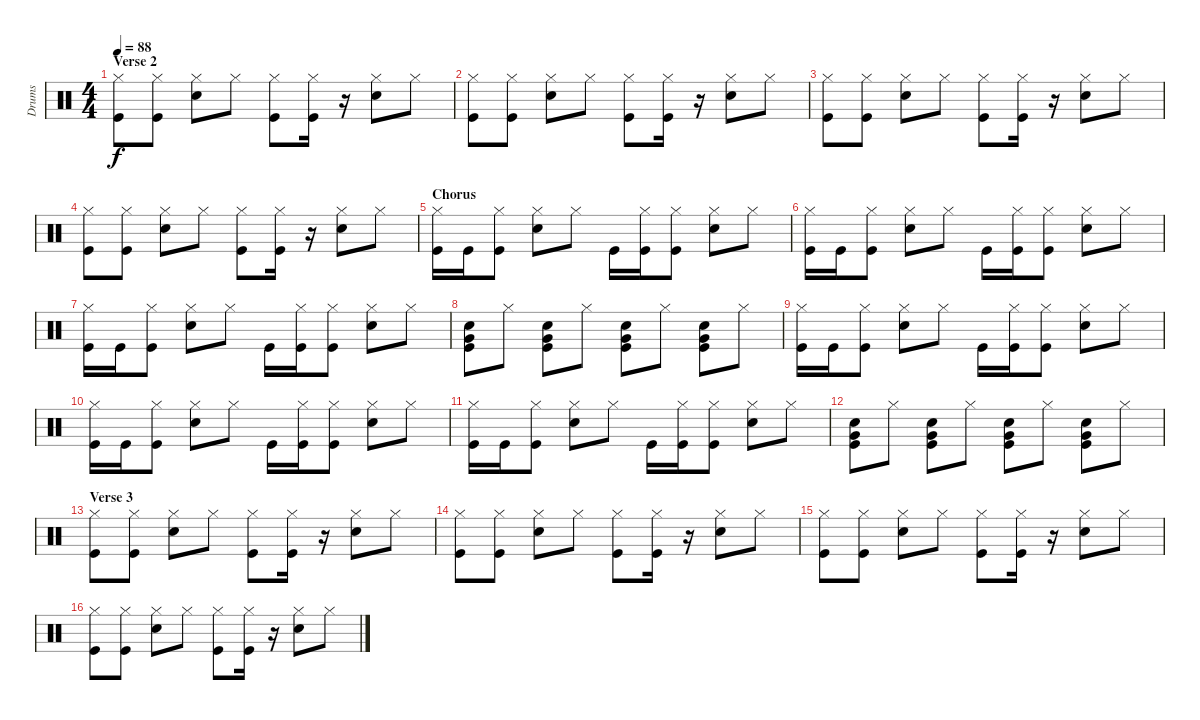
\track ("Drums" "Drums") {instrument percussion}
\staff {score}
\articulation defaults
\ts (4 4)
\section ("" "Verse 2")
\tempo 88
\clef neutral
\ks c
("Hi-Hat (closed)" "Kick (hit)").8{dy f} ("Hi-Hat (closed)" "Kick (hit)").8 ("Hi-Hat (closed)" "Snare (hit) 2").8 "Hi-Hat (closed)".8 ("Hi-Hat (closed)" "Kick (hit)").8 ("Hi-Hat (closed)" "Kick (hit)").16 r.16 ("Hi-Hat (closed)" "Snare (hit) 2").8 "Hi-Hat (closed)".8 |
("Hi-Hat (closed)" "Kick (hit)").8 ("Hi-Hat (closed)" "Kick (hit)").8 ("Hi-Hat (closed)" "Snare (hit) 2").8 "Hi-Hat (closed)".8 ("Hi-Hat (closed)" "Kick (hit)").8 ("Hi-Hat (closed)" "Kick (hit)").16 r.16 ("Hi-Hat (closed)" "Snare (hit) 2").8 "Hi-Hat (closed)".8 |
("Hi-Hat (closed)" "Kick (hit)").8 ("Hi-Hat (closed)" "Kick (hit)").8 ("Hi-Hat (closed)" "Snare (hit) 2").8 "Hi-Hat (closed)".8 ("Hi-Hat (closed)" "Kick (hit)").8 ("Hi-Hat (closed)" "Kick (hit)").16 r.16 ("Hi-Hat (closed)" "Snare (hit) 2").8 "Hi-Hat (closed)".8 |
("Hi-Hat (closed)" "Kick (hit)").8 ("Hi-Hat (closed)" "Kick (hit)").8 ("Hi-Hat (closed)" "Snare (hit) 2").8 "Hi-Hat (closed)".8 ("Hi-Hat (closed)" "Kick (hit)").8 ("Hi-Hat (closed)" "Kick (hit)").16 r.16 ("Hi-Hat (closed)" "Snare (hit) 2").8 "Hi-Hat (closed)".8 |
\section ("" "Chorus")
("Hi-Hat (closed)" "Kick (hit)").16 "Kick (hit)".16 ("Hi-Hat (closed)" "Kick (hit)").8 ("Hi-Hat (closed)" "Snare (hit) 2").8 "Hi-Hat (closed)".8 "Kick (hit)".16 ("Hi-Hat (closed)" "Kick (hit)").16 ("Hi-Hat (closed)" "Kick (hit)").8 ("Hi-Hat (closed)" "Snare (hit) 2").8 "Hi-Hat (closed)".8 |
("Hi-Hat (closed)" "Kick (hit)").16 "Kick (hit)".16 ("Hi-Hat (closed)" "Kick (hit)").8 ("Hi-Hat (closed)" "Snare (hit) 2").8 "Hi-Hat (closed)".8 "Kick (hit)".16 ("Hi-Hat (closed)" "Kick (hit)").16 ("Hi-Hat (closed)" "Kick (hit)").8 ("Hi-Hat (closed)" "Snare (hit) 2").8 "Hi-Hat (closed)".8 |
("Hi-Hat (closed)" "Kick (hit)").16 "Kick (hit)".16 ("Hi-Hat (closed)" "Kick (hit)").8 ("Hi-Hat (closed)" "Snare (hit) 2").8 "Hi-Hat (closed)".8 "Kick (hit)".16 ("Hi-Hat (closed)" "Kick (hit)").16 ("Hi-Hat (closed)" "Kick (hit)").8 ("Hi-Hat (closed)" "Snare (hit) 2").8 "Hi-Hat (closed)".8 |
("Very Low Tom (hit)" "Snare (hit) 2" "Kick (hit)").8 "Hi-Hat (closed)".8 ("Snare (hit) 2" "Kick (hit)" "Very Low Tom (hit)").8 "Hi-Hat (closed)".8 ("Snare (hit) 2" "Kick (hit)" "Very Low Tom (hit)").8 "Hi-Hat (closed)".8 ("Snare (hit) 2" "Very Low Tom (hit)" "Kick (hit)").8 "Hi-Hat (closed)".8 |
("Hi-Hat (closed)" "Kick (hit)").16 "Kick (hit)".16 ("Hi-Hat (closed)" "Kick (hit)").8 ("Hi-Hat (closed)" "Snare (hit) 2").8 "Hi-Hat (closed)".8 "Kick (hit)".16 ("Hi-Hat (closed)" "Kick (hit)").16 ("Hi-Hat (closed)" "Kick (hit)").8 ("Hi-Hat (closed)" "Snare (hit) 2").8 "Hi-Hat (closed)".8 |
("Hi-Hat (closed)" "Kick (hit)").16 "Kick (hit)".16 ("Hi-Hat (closed)" "Kick (hit)").8 ("Hi-Hat (closed)" "Snare (hit) 2").8 "Hi-Hat (closed)".8 "Kick (hit)".16 ("Hi-Hat (closed)" "Kick (hit)").16 ("Hi-Hat (closed)" "Kick (hit)").8 ("Hi-Hat (closed)" "Snare (hit) 2").8 "Hi-Hat (closed)".8 |
("Hi-Hat (closed)" "Kick (hit)").16 "Kick (hit)".16 ("Hi-Hat (closed)" "Kick (hit)").8 ("Hi-Hat (closed)" "Snare (hit) 2").8 "Hi-Hat (closed)".8 "Kick (hit)".16 ("Hi-Hat (closed)" "Kick (hit)").16 ("Hi-Hat (closed)" "Kick (hit)").8 ("Hi-Hat (closed)" "Snare (hit) 2").8 "Hi-Hat (closed)".8 |
("Very Low Tom (hit)" "Snare (hit) 2" "Kick (hit)").8 "Hi-Hat (closed)".8 ("Snare (hit) 2" "Kick (hit)" "Very Low Tom (hit)").8 "Hi-Hat (closed)".8 ("Snare (hit) 2" "Kick (hit)" "Very Low Tom (hit)").8 "Hi-Hat (closed)".8 ("Snare (hit) 2" "Very Low Tom (hit)" "Kick (hit)").8 "Hi-Hat (closed)".8 |
\section ("" "Verse 3")
("Hi-Hat (closed)" "Kick (hit)").8 ("Hi-Hat (closed)" "Kick (hit)").8 ("Hi-Hat (closed)" "Snare (hit) 2").8 "Hi-Hat (closed)".8 ("Hi-Hat (closed)" "Kick (hit)").8 ("Hi-Hat (closed)" "Kick (hit)").16 r.16 ("Hi-Hat (closed)" "Snare (hit) 2").8 "Hi-Hat (closed)".8 |
("Hi-Hat (closed)" "Kick (hit)").8 ("Hi-Hat (closed)" "Kick (hit)").8 ("Hi-Hat (closed)" "Snare (hit) 2").8 "Hi-Hat (closed)".8 ("Hi-Hat (closed)" "Kick (hit)").8 ("Hi-Hat (closed)" "Kick (hit)").16 r.16 ("Hi-Hat (closed)" "Snare (hit) 2").8 "Hi-Hat (closed)".8 |
("Hi-Hat (closed)" "Kick (hit)").8 ("Hi-Hat (closed)" "Kick (hit)").8 ("Hi-Hat (closed)" "Snare (hit) 2").8 "Hi-Hat (closed)".8 ("Hi-Hat (closed)" "Kick (hit)").8 ("Hi-Hat (closed)" "Kick (hit)").16 r.16 ("Hi-Hat (closed)" "Snare (hit) 2").8 "Hi-Hat (closed)".8 |
("Hi-Hat (closed)" "Kick (hit)").8 ("Hi-Hat (closed)" "Kick (hit)").8 ("Hi-Hat (closed)" "Snare (hit) 2").8 "Hi-Hat (closed)".8 ("Hi-Hat (closed)" "Kick (hit)").8 ("Hi-Hat (closed)" "Kick (hit)").16 r.16 ("Hi-Hat (closed)" "Snare (hit) 2").8 "Hi-Hat (closed)".8
